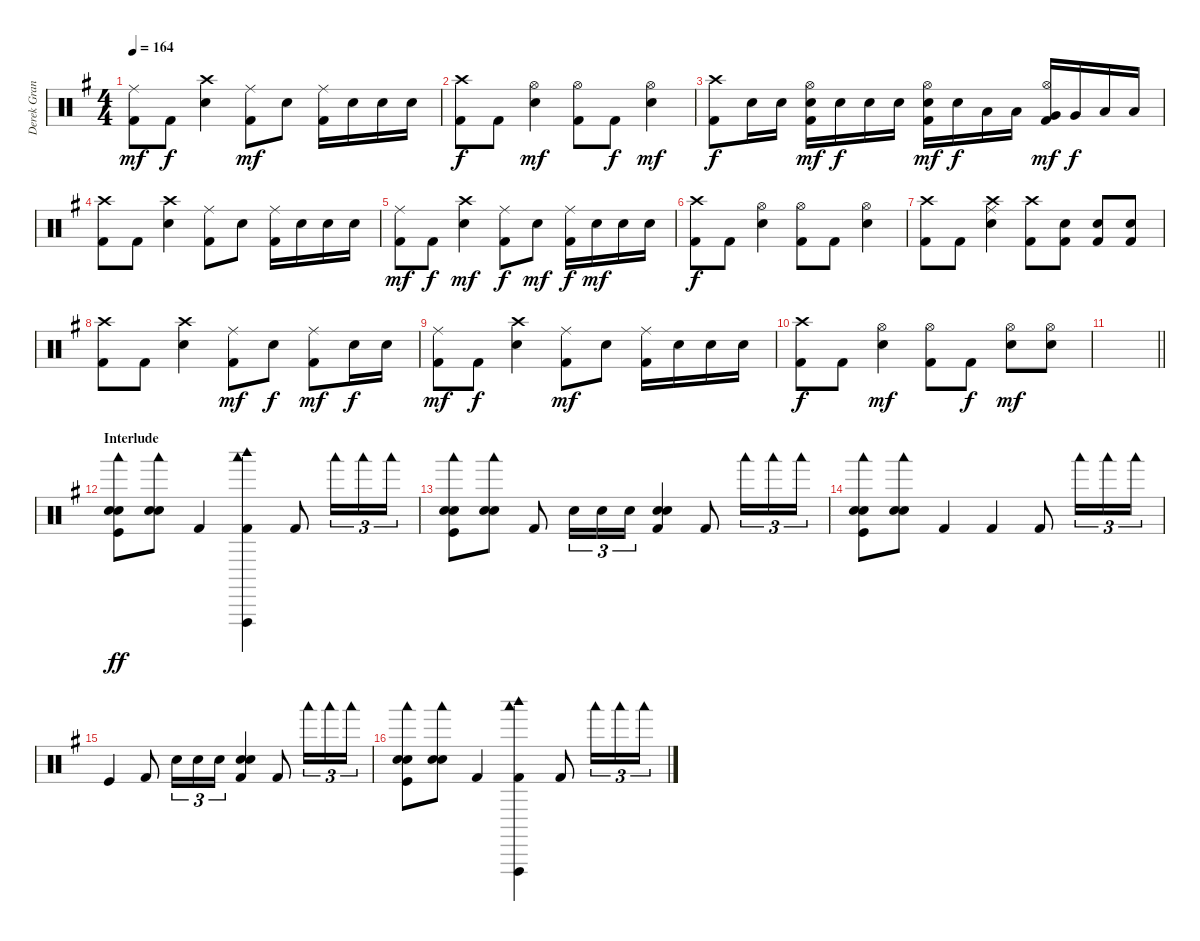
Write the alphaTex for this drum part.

\track ("Derek Grant - Drums" "Derek Gran") {instrument percussion}
\staff {score}
\articulation defaults
\ts (4 4)
\tempo 164
\clef neutral
\ks eminor
("Kick (hit) 2" "Ride (middle)").8{dy mf} "Kick (hit) 2".8{dy f} ("Snare (hit) 2" "Crash high (hit)").4 ("Kick (hit) 2" "Ride (middle)").8{dy mf} "Snare (hit) 2".8 ("Kick (hit) 2" "Ride (middle)").16 "Snare (hit) 2".16 "Snare (hit) 2".16 "Snare (hit) 2".16 |
("Kick (hit) 2" "Crash high (hit)").8{dy f} "Kick (hit) 2".8 ("Snare (hit) 2" "Hi-Hat (open)").4{dy mf} ("Kick (hit) 2" "Hi-Hat (open)").8 "Kick (hit) 2".8{dy f} ("Snare (hit) 2" "Hi-Hat (open)").4{dy mf} |
("Kick (hit) 2" "Crash high (hit)").8{dy f} "Snare (hit) 2".16 "Snare (hit) 2".16 ("Snare (hit) 2" "Kick (hit) 2" "Hi-Hat (open)").16{dy mf} "Snare (hit) 2".16{dy f} "Snare (hit) 2".16 "Snare (hit) 2".16 ("Snare (hit) 2" "Kick (hit) 2" "Hi-Hat (open)").16{dy mf} "Snare (hit) 2".16{dy f} "Low Tom (hit)".16 "Low Tom (hit)".16 ("Very Low Tom (hit)" "Kick (hit) 2" "Hi-Hat (open)").16{dy mf} "Very Low Tom (hit)".16{dy f} "Low Floor Tom (hit)".16 "Low Floor Tom (hit)".16 |
("Kick (hit) 2" "Crash high (hit)").8 "Kick (hit) 2".8 ("Snare (hit) 2" "Crash high (hit)").4 ("Kick (hit) 2" "Ride (middle)").8 "Electric Snare (hit)".8 ("Kick (hit) 2" "Ride (middle)").16 "Electric Snare (hit)".16 "Electric Snare (hit)".16 "Electric Snare (hit)".16 |
("Kick (hit) 2" "Ride (middle)").8{dy mf} "Kick (hit) 2".8{dy f} ("Snare (hit) 2" "Crash high (hit)").4{dy mf} ("Kick (hit) 2" "Ride (middle)").8{dy f} "Snare (hit) 2".8{dy mf} ("Kick (hit) 2" "Ride (middle)").16{dy f} "Snare (hit) 2".16{dy mf} "Snare (hit) 2".16 "Snare (hit) 2".16 |
("Kick (hit) 2" "Crash high (hit)").8{dy f} "Kick (hit) 2".8 ("Snare (hit) 2" "Hi-Hat (open)").4 ("Kick (hit) 2" "Hi-Hat (open)").8 "Kick (hit) 2".8 ("Snare (hit) 2" "Hi-Hat (open)").4 |
("Kick (hit) 2" "Crash high (hit)").8 "Kick (hit) 2".8 ("Snare (hit) 2" "Crash high (hit)" "Ride (middle)").4 ("Kick (hit) 2" "Crash high (hit)").8 ("Snare (hit) 2" "Kick (hit) 2").8 ("Snare (hit) 2" "Kick (hit) 2").8 ("Snare (hit) 2" "Kick (hit) 2").8 |
("Kick (hit) 2" "Crash high (hit)").8 "Kick (hit) 2".8 ("Snare (hit) 2" "Crash high (hit)").4 ("Kick (hit) 2" "Ride (middle)").8{dy mf} "Electric Snare (hit)".8{dy f} ("Kick (hit) 2" "Ride (middle)").8{dy mf} "Electric Snare (hit)".16{dy f} "Electric Snare (hit)".16 |
("Kick (hit) 2" "Ride (middle)").8{dy mf} "Kick (hit) 2".8{dy f} ("Snare (hit) 2" "Crash high (hit)").4 ("Kick (hit) 2" "Ride (middle)").8{dy mf} "Snare (hit) 2".8 ("Kick (hit) 2" "Ride (middle)").16 "Snare (hit) 2".16 "Snare (hit) 2".16 "Snare (hit) 2".16 |
("Kick (hit) 2" "Crash high (hit)").8{dy f} "Kick (hit) 2".8 ("Snare (hit) 2" "Hi-Hat (open)").4{dy mf} ("Kick (hit) 2" "Hi-Hat (open)").8 "Kick (hit) 2".8{dy f} ("Snare (hit) 2" "Hi-Hat (open)").8{dy mf} ("Snare (hit) 2" "Hi-Hat (open)").8 |
\barLineRight lightlight
|
\section ("" "Interlude")
("Kick (hit)" "Snare (hit) 2" "Snare (hit) 2" "Woodblock low (hit)").8{dy ff volume 7} ("Snare (hit) 2" "Snare (hit) 2" "Woodblock low (hit)").8 "Kick (hit) 2".4 ("Kick (hit) 2" "Vibraslap (hit)" "Woodblock low (hit)" "Woodblock high (hit)").4 "Kick (hit) 2".8 "Woodblock low (hit)".16{tu (3 2)} "Woodblock low (hit)".16{tu (3 2)} "Woodblock low (hit)".16{tu (3 2)} |
("Kick (hit)" "Snare (hit) 2" "Snare (hit) 2" "Woodblock low (hit)").8 ("Snare (hit) 2" "Snare (hit) 2" "Woodblock low (hit)").8 "Kick (hit) 2".8 "Snare (hit) 2".16{tu (3 2)} "Snare (hit) 2".16{tu (3 2)} "Snare (hit) 2".16{tu (3 2)} ("Snare (hit) 2" "Snare (hit) 2" "Kick (hit) 2").4 "Kick (hit) 2".8 "Woodblock low (hit)".16{tu (3 2)} "Woodblock low (hit)".16{tu (3 2)} "Woodblock low (hit)".16{tu (3 2)} |
("Kick (hit)" "Snare (hit) 2" "Snare (hit) 2" "Woodblock low (hit)").8 ("Snare (hit) 2" "Snare (hit) 2" "Woodblock low (hit)").8 "Kick (hit) 2".4 "Kick (hit) 2".4 "Kick (hit) 2".8 "Woodblock low (hit)".16{tu (3 2)} "Woodblock low (hit)".16{tu (3 2)} "Woodblock low (hit)".16{tu (3 2)} |
"Kick (hit)".4 "Kick (hit) 2".8 "Snare (hit) 2".16{tu (3 2)} "Snare (hit) 2".16{tu (3 2)} "Snare (hit) 2".16{tu (3 2)} ("Snare (hit) 2" "Snare (hit) 2" "Kick (hit) 2").4 "Kick (hit) 2".8 "Woodblock low (hit)".16{tu (3 2)} "Woodblock low (hit)".16{tu (3 2)} "Woodblock low (hit)".16{tu (3 2)} |
("Kick (hit)" "Snare (hit) 2" "Snare (hit) 2" "Woodblock low (hit)").8 ("Snare (hit) 2" "Snare (hit) 2" "Woodblock low (hit)").8 "Kick (hit) 2".4 ("Kick (hit) 2" "Vibraslap (hit)" "Woodblock low (hit)" "Woodblock high (hit)").4 "Kick (hit) 2".8 "Woodblock low (hit)".16{tu (3 2)} "Woodblock low (hit)".16{tu (3 2)} "Woodblock low (hit)".16{tu (3 2)}
